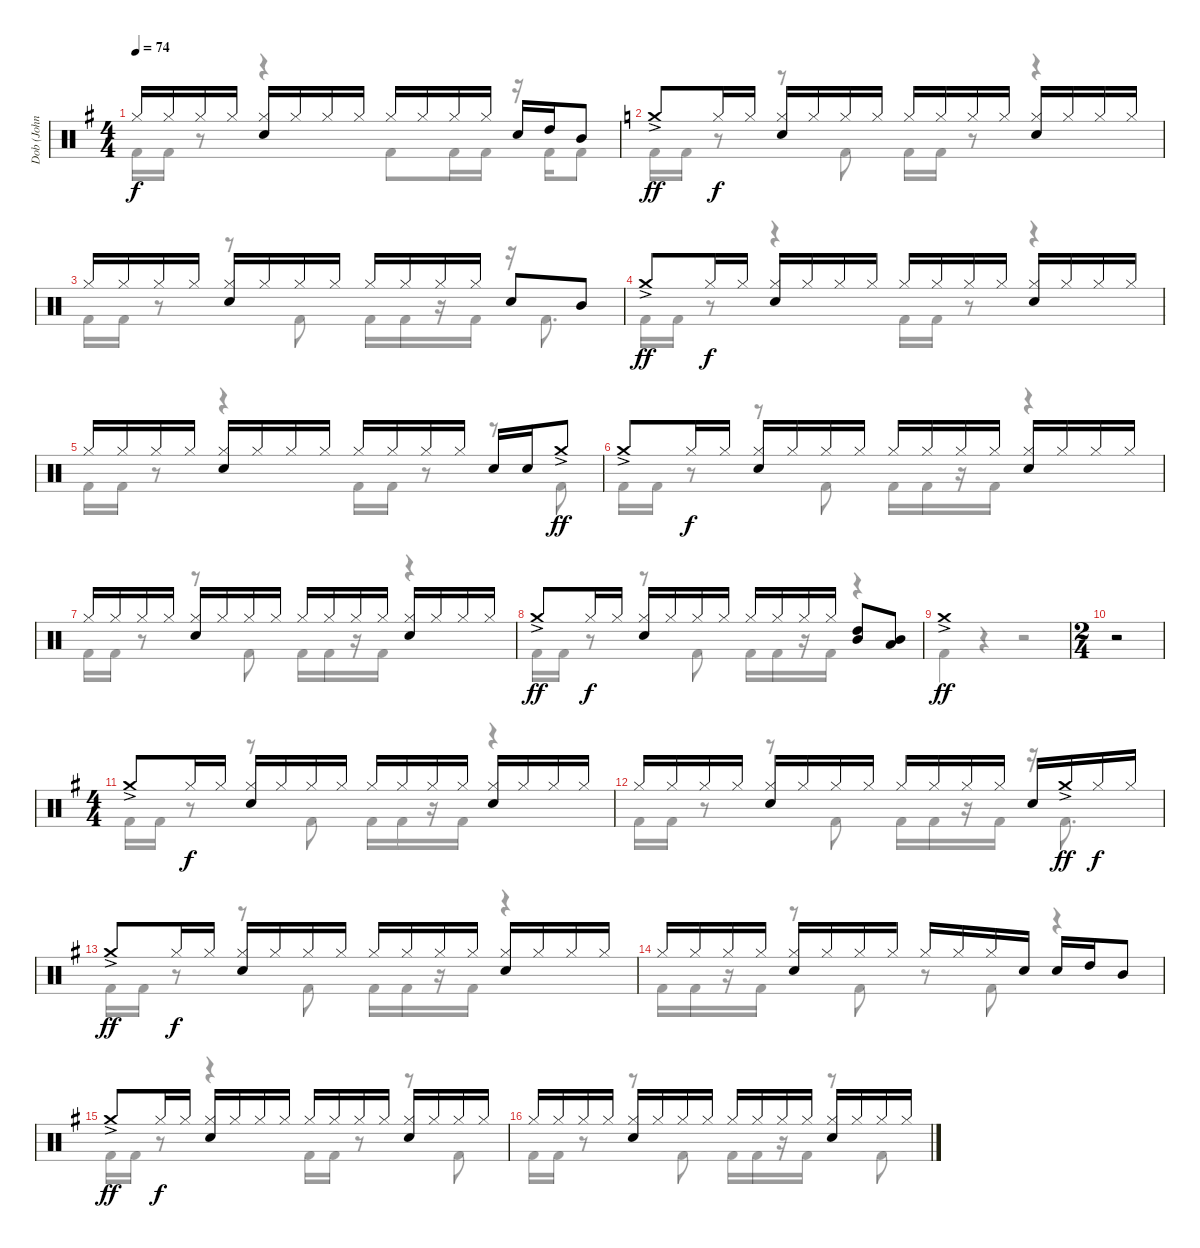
\track ("Dob (John O'Reilly)" "Dob (John ") {instrument percussion}
\staff {score}
\articulation defaults
\voice
\ts (4 4)
\tempo 74
\clef neutral
\ks g "Hi-Hat (closed)".16{dy f} "Hi-Hat (closed)".16 "Hi-Hat (closed)".16 "Hi-Hat (closed)".16
("Hi-Hat (closed)" "Electric Snare (hit)").16 "Hi-Hat (closed)".16 "Hi-Hat (closed)".16 "Hi-Hat (closed)".16 "Hi-Hat (closed)".16 "Hi-Hat (closed)".16 "Hi-Hat (closed)".16 "Hi-Hat (closed)".16 "Electric Snare (hit)".16 "High Tom (hit)".16 "Mid Tom (hit)".8 |
\ks c "Crash medium (hit)"{ac}.8{dy ff} "Hi-Hat (closed)".16{dy f} "Hi-Hat (closed)".16
("Hi-Hat (closed)" "Electric Snare (hit)").16 "Hi-Hat (closed)".16 "Hi-Hat (closed)".16 "Hi-Hat (closed)".16 "Hi-Hat (closed)".16 "Hi-Hat (closed)".16 "Hi-Hat (closed)".16 "Hi-Hat (closed)".16 ("Hi-Hat (closed)" "Electric Snare (hit)").16 "Hi-Hat (closed)".16 "Hi-Hat (closed)".16 "Hi-Hat (closed)".16 |
"Hi-Hat (closed)".16 "Hi-Hat (closed)".16 "Hi-Hat (closed)".16 "Hi-Hat (closed)".16 ("Hi-Hat (closed)" "Electric Snare (hit)").16 "Hi-Hat (closed)".16 "Hi-Hat (closed)".16 "Hi-Hat (closed)".16 "Hi-Hat (closed)".16 "Hi-Hat (closed)".16 "Hi-Hat (closed)".16 "Hi-Hat (closed)".16 "Electric Snare (hit)".8 "Mid Tom (hit)".8 |
"Crash medium (hit)"{ac}.8{dy ff} "Hi-Hat (closed)".16{dy f} "Hi-Hat (closed)".16 ("Hi-Hat (closed)" "Electric Snare (hit)").16 "Hi-Hat (closed)".16 "Hi-Hat (closed)".16 "Hi-Hat (closed)".16 "Hi-Hat (closed)".16 "Hi-Hat (closed)".16 "Hi-Hat (closed)".16 "Hi-Hat (closed)".16 ("Hi-Hat (closed)" "Electric Snare (hit)").16 "Hi-Hat (closed)".16 "Hi-Hat (closed)".16 "Hi-Hat (closed)".16 |
"Hi-Hat (closed)".16 "Hi-Hat (closed)".16 "Hi-Hat (closed)".16 "Hi-Hat (closed)".16 ("Hi-Hat (closed)" "Electric Snare (hit)").16 "Hi-Hat (closed)".16 "Hi-Hat (closed)".16 "Hi-Hat (closed)".16 "Hi-Hat (closed)".16 "Hi-Hat (closed)".16 "Hi-Hat (closed)".16 "Hi-Hat (closed)".16 "Electric Snare (hit)".16 "Electric Snare (hit)".16 "Crash medium (hit)"{ac}.8{dy ff} |
"Crash medium (hit)"{ac}.8 "Hi-Hat (closed)".16{dy f} "Hi-Hat (closed)".16 ("Hi-Hat (closed)" "Electric Snare (hit)").16 "Hi-Hat (closed)".16 "Hi-Hat (closed)".16 "Hi-Hat (closed)".16 "Hi-Hat (closed)".16 "Hi-Hat (closed)".16 "Hi-Hat (closed)".16 "Hi-Hat (closed)".16 ("Hi-Hat (closed)" "Electric Snare (hit)").16 "Hi-Hat (closed)".16 "Hi-Hat (closed)".16 "Hi-Hat (closed)".16 |
"Hi-Hat (closed)".16 "Hi-Hat (closed)".16 "Hi-Hat (closed)".16 "Hi-Hat (closed)".16 ("Hi-Hat (closed)" "Electric Snare (hit)").16 "Hi-Hat (closed)".16 "Hi-Hat (closed)".16 "Hi-Hat (closed)".16 "Hi-Hat (closed)".16 "Hi-Hat (closed)".16 "Hi-Hat (closed)".16 "Hi-Hat (closed)".16 ("Hi-Hat (closed)" "Electric Snare (hit)").16 "Hi-Hat (closed)".16 "Hi-Hat (closed)".16 "Hi-Hat (closed)".16 |
"Crash medium (hit)"{ac}.8{dy ff} "Hi-Hat (closed)".16{dy f} "Hi-Hat (closed)".16 ("Hi-Hat (closed)" "Electric Snare (hit)").16 "Hi-Hat (closed)".16 "Hi-Hat (closed)".16 "Hi-Hat (closed)".16 "Hi-Hat (closed)".16 "Hi-Hat (closed)".16 "Hi-Hat (closed)".16 "Hi-Hat (closed)".16 ("High Tom (hit)" "Mid Tom (hit)").8 ("Mid Tom (hit)" "Low Tom (hit)").8 |
"Crash medium (hit)"{ac}.1{dy ff} |
\ts (2 4)
r.2 |
\ts (4 4)
\ks g "Crash medium (hit)"{ac}.8 "Hi-Hat (closed)".16{dy f} "Hi-Hat (closed)".16
("Hi-Hat (closed)" "Electric Snare (hit)").16 "Hi-Hat (closed)".16 "Hi-Hat (closed)".16 "Hi-Hat (closed)".16 "Hi-Hat (closed)".16 "Hi-Hat (closed)".16 "Hi-Hat (closed)".16 "Hi-Hat (closed)".16 ("Hi-Hat (closed)" "Electric Snare (hit)").16 "Hi-Hat (closed)".16 "Hi-Hat (closed)".16 "Hi-Hat (closed)".16 |
"Hi-Hat (closed)".16 "Hi-Hat (closed)".16 "Hi-Hat (closed)".16 "Hi-Hat (closed)".16 ("Hi-Hat (closed)" "Electric Snare (hit)").16 "Hi-Hat (closed)".16 "Hi-Hat (closed)".16 "Hi-Hat (closed)".16 "Hi-Hat (closed)".16 "Hi-Hat (closed)".16 "Hi-Hat (closed)".16 "Hi-Hat (closed)".16 "Electric Snare (hit)".16 "Crash medium (hit)"{ac}.16{dy ff} "Hi-Hat (closed)".16{dy f} "Hi-Hat (closed)".16 |
"Crash medium (hit)"{ac}.8{dy ff} "Hi-Hat (closed)".16{dy f} "Hi-Hat (closed)".16 ("Hi-Hat (closed)" "Electric Snare (hit)").16 "Hi-Hat (closed)".16 "Hi-Hat (closed)".16 "Hi-Hat (closed)".16 "Hi-Hat (closed)".16 "Hi-Hat (closed)".16 "Hi-Hat (closed)".16 "Hi-Hat (closed)".16 ("Hi-Hat (closed)" "Electric Snare (hit)").16 "Hi-Hat (closed)".16 "Hi-Hat (closed)".16 "Hi-Hat (closed)".16 |
"Hi-Hat (closed)".16 "Hi-Hat (closed)".16 "Hi-Hat (closed)".16 "Hi-Hat (closed)".16 ("Hi-Hat (closed)" "Electric Snare (hit)").16 "Hi-Hat (closed)".16 "Hi-Hat (closed)".16 "Hi-Hat (closed)".16 "Hi-Hat (closed)".16 "Hi-Hat (closed)".16 "Hi-Hat (closed)".16 "Electric Snare (hit)".16 "Electric Snare (hit)".16 "High Tom (hit)".16 "Mid Tom (hit)".8 |
"Crash medium (hit)"{ac}.8{dy ff} "Hi-Hat (closed)".16{dy f} "Hi-Hat (closed)".16 ("Hi-Hat (closed)" "Electric Snare (hit)").16 "Hi-Hat (closed)".16 "Hi-Hat (closed)".16 "Hi-Hat (closed)".16 "Hi-Hat (closed)".16 "Hi-Hat (closed)".16 "Hi-Hat (closed)".16 "Hi-Hat (closed)".16 ("Hi-Hat (closed)" "Electric Snare (hit)").16 "Hi-Hat (closed)".16 "Hi-Hat (closed)".16 "Hi-Hat (closed)".16 |
"Hi-Hat (closed)".16 "Hi-Hat (closed)".16 "Hi-Hat (closed)".16 "Hi-Hat (closed)".16 ("Hi-Hat (closed)" "Electric Snare (hit)").16 "Hi-Hat (closed)".16 "Hi-Hat (closed)".16 "Hi-Hat (closed)".16 "Hi-Hat (closed)".16 "Hi-Hat (closed)".16 "Hi-Hat (closed)".16 "Hi-Hat (closed)".16 ("Hi-Hat (closed)" "Electric Snare (hit)").16 "Hi-Hat (closed)".16 "Hi-Hat (closed)".16 "Hi-Hat (closed)".16
\voice
\clef neutral
\ottava regular
\simile none
\ks g "Kick (hit) 2".16{dy f} "Kick (hit) 2".16
r.8 r.4 "Kick (hit) 2".8 "Kick (hit) 2".16 "Kick (hit) 2".16 r.16 "Kick (hit) 2".16 "Kick (hit) 2".8 |
\ks c "Kick (hit) 2".16 "Kick (hit) 2".16
r.8 r.8 "Kick (hit) 2".8 "Kick (hit) 2".16 "Kick (hit) 2".16 r.8 r.4 |
"Kick (hit) 2".16 "Kick (hit) 2".16 r.8 r.8 "Kick (hit) 2".8 "Kick (hit) 2".16 "Kick (hit) 2".16 r.16 "Kick (hit) 2".16 r.16 "Kick (hit) 2".8{d} |
"Kick (hit) 2".16 "Kick (hit) 2".16 r.8 r.4 "Kick (hit) 2".16 "Kick (hit) 2".16 r.8 r.4 |
"Kick (hit) 2".16 "Kick (hit) 2".16 r.8 r.4 "Kick (hit) 2".16 "Kick (hit) 2".16 r.8 r.8 "Kick (hit) 2".8 |
"Kick (hit) 2".16 "Kick (hit) 2".16 r.8 r.8 "Kick (hit) 2".8 "Kick (hit) 2".16 "Kick (hit) 2".16 r.16 "Kick (hit) 2".16 r.4 |
"Kick (hit) 2".16 "Kick (hit) 2".16 r.8 r.8 "Kick (hit) 2".8 "Kick (hit) 2".16 "Kick (hit) 2".16 r.16 "Kick (hit) 2".16 r.4 |
"Kick (hit) 2".16 "Kick (hit) 2".16 r.8 r.8 "Kick (hit) 2".8 "Kick (hit) 2".16 "Kick (hit) 2".16 r.16 "Kick (hit) 2".16 r.4 |
"Kick (hit) 2".4 r.4 r.2 |
r.2 |
\ks g "Kick (hit) 2".16 "Kick (hit) 2".16
r.8 r.8 "Kick (hit) 2".8 "Kick (hit) 2".16 "Kick (hit) 2".16 r.16 "Kick (hit) 2".16 r.4 |
"Kick (hit) 2".16 "Kick (hit) 2".16 r.8 r.8 "Kick (hit) 2".8 "Kick (hit) 2".16 "Kick (hit) 2".16 r.16 "Kick (hit) 2".16 r.16 "Kick (hit) 2".8{d} |
"Kick (hit) 2".16 "Kick (hit) 2".16 r.8 r.8 "Kick (hit) 2".8 "Kick (hit) 2".16 "Kick (hit) 2".16 r.16 "Kick (hit) 2".16 r.4 |
"Kick (hit) 2".16 "Kick (hit) 2".16 r.16 "Kick (hit) 2".16 r.8 "Kick (hit) 2".8 r.8 "Kick (hit) 2".8 r.4 |
"Kick (hit) 2".16 "Kick (hit) 2".16 r.8 r.4 "Kick (hit) 2".16 "Kick (hit) 2".16 r.8 r.8 "Kick (hit) 2".8 |
"Kick (hit) 2".16 "Kick (hit) 2".16 r.8 r.8 "Kick (hit) 2".8 "Kick (hit) 2".16 "Kick (hit) 2".16 r.16 "Kick (hit) 2".16 r.8 "Kick (hit) 2".8
